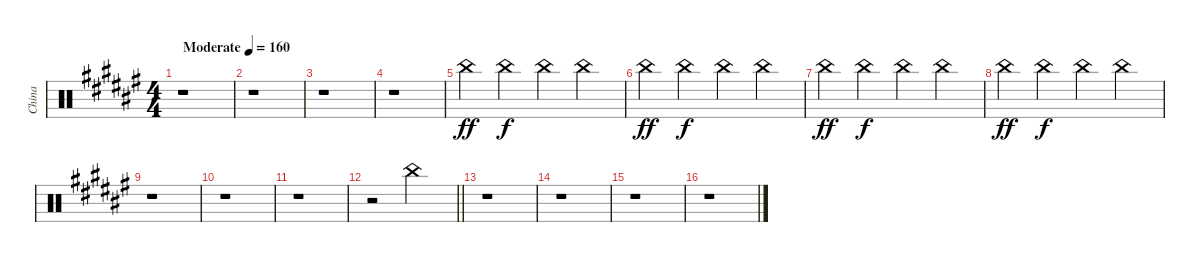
\track ("China" "China") {instrument percussion}
\staff {score}
\articulation defaults
\ts (4 4)
\tempo (160 "Moderate")
\clef neutral
\ks d#minor
r.1{dy ff} |
r.1 |
r.1 |
r.1 |
"China (hit)".4 "China (hit)".4{dy f} "China (hit)".4 "China (hit)".4 |
"China (hit)".4{dy ff} "China (hit)".4{dy f} "China (hit)".4 "China (hit)".4 |
"China (hit)".4{dy ff} "China (hit)".4{dy f} "China (hit)".4 "China (hit)".4 |
"China (hit)".4{dy ff} "China (hit)".4{dy f} "China (hit)".4 "China (hit)".4 |
r.1 |
r.1 |
r.1 |
\barLineRight lightlight
r.2 "China (hit)".2 |
r.1 |
r.1 |
r.1 |
r.1
